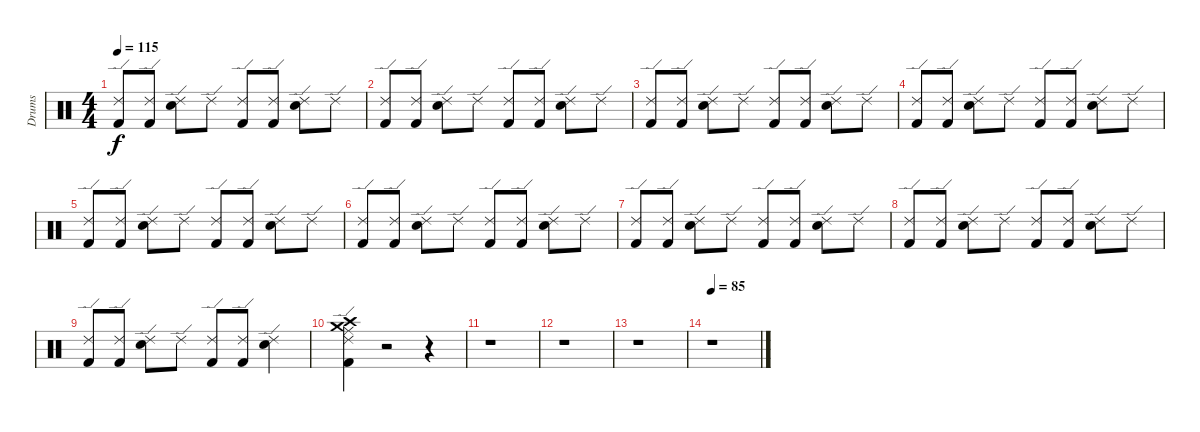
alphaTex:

\track ("Drums" "Drums") {instrument percussion}
\staff {score}
\articulation defaults
\ts (4 4)
\tempo 115
\clef neutral
\ks c
("Ride (edge) 2" "Kick (hit) 2").8{dy f} ("Ride (edge) 2" "Kick (hit) 2").8 ("Snare (hit) 2" "Ride (edge) 2").8 "Ride (edge) 2".8 ("Ride (edge) 2" "Kick (hit) 2").8 ("Ride (edge) 2" "Kick (hit) 2").8 ("Snare (hit) 2" "Ride (edge) 2").8 "Ride (edge) 2".8 |
("Ride (edge) 2" "Kick (hit) 2").8 ("Ride (edge) 2" "Kick (hit) 2").8 ("Snare (hit) 2" "Ride (edge) 2").8 "Ride (edge) 2".8 ("Ride (edge) 2" "Kick (hit) 2").8 ("Ride (edge) 2" "Kick (hit) 2").8 ("Snare (hit) 2" "Ride (edge) 2").8 "Ride (edge) 2".8 |
("Ride (edge) 2" "Kick (hit) 2").8 ("Ride (edge) 2" "Kick (hit) 2").8 ("Snare (hit) 2" "Ride (edge) 2").8 "Ride (edge) 2".8 ("Ride (edge) 2" "Kick (hit) 2").8 ("Ride (edge) 2" "Kick (hit) 2").8 ("Snare (hit) 2" "Ride (edge) 2").8 "Ride (edge) 2".8 |
("Ride (edge) 2" "Kick (hit) 2").8 ("Ride (edge) 2" "Kick (hit) 2").8 ("Snare (hit) 2" "Ride (edge) 2").8 "Ride (edge) 2".8 ("Ride (edge) 2" "Kick (hit) 2").8 ("Ride (edge) 2" "Kick (hit) 2").8 ("Snare (hit) 2" "Ride (edge) 2").8 "Ride (edge) 2".8 |
("Ride (edge) 2" "Kick (hit) 2").8 ("Ride (edge) 2" "Kick (hit) 2").8 ("Snare (hit) 2" "Ride (edge) 2").8 "Ride (edge) 2".8 ("Ride (edge) 2" "Kick (hit) 2").8 ("Ride (edge) 2" "Kick (hit) 2").8 ("Snare (hit) 2" "Ride (edge) 2").8 "Ride (edge) 2".8 |
("Ride (edge) 2" "Kick (hit) 2").8 ("Ride (edge) 2" "Kick (hit) 2").8 ("Snare (hit) 2" "Ride (edge) 2").8 "Ride (edge) 2".8 ("Ride (edge) 2" "Kick (hit) 2").8 ("Ride (edge) 2" "Kick (hit) 2").8 ("Snare (hit) 2" "Ride (edge) 2").8 "Ride (edge) 2".8 |
("Ride (edge) 2" "Kick (hit) 2").8 ("Ride (edge) 2" "Kick (hit) 2").8 ("Ride (edge) 2" "Snare (hit) 2").8 "Ride (edge) 2".8 ("Ride (edge) 2" "Kick (hit) 2").8 ("Ride (edge) 2" "Kick (hit) 2").8 ("Ride (edge) 2" "Snare (hit) 2").8 "Ride (edge) 2".8 |
("Ride (edge) 2" "Kick (hit) 2").8 ("Ride (edge) 2" "Kick (hit) 2").8 ("Ride (edge) 2" "Snare (hit) 2").8 "Ride (edge) 2".8 ("Ride (edge) 2" "Kick (hit) 2").8 ("Ride (edge) 2" "Kick (hit) 2").8 ("Ride (edge) 2" "Snare (hit) 2").8 "Ride (edge) 2".8 |
("Ride (edge) 2" "Kick (hit) 2").8 ("Ride (edge) 2" "Kick (hit) 2").8 ("Ride (edge) 2" "Snare (hit) 2").8 "Ride (edge) 2".8 ("Ride (edge) 2" "Kick (hit) 2").8 ("Ride (edge) 2" "Kick (hit) 2").8 ("Ride (edge) 2" "Snare (hit) 2").4 |
("Ride (middle)" "Crash high (hit)" "Ride (edge) 2" "Crash medium (hit)" "Kick (hit) 2").4 r.2 r.4 |
r.1 |
r.1 |
r.1 |
\tempo 85
r.1
